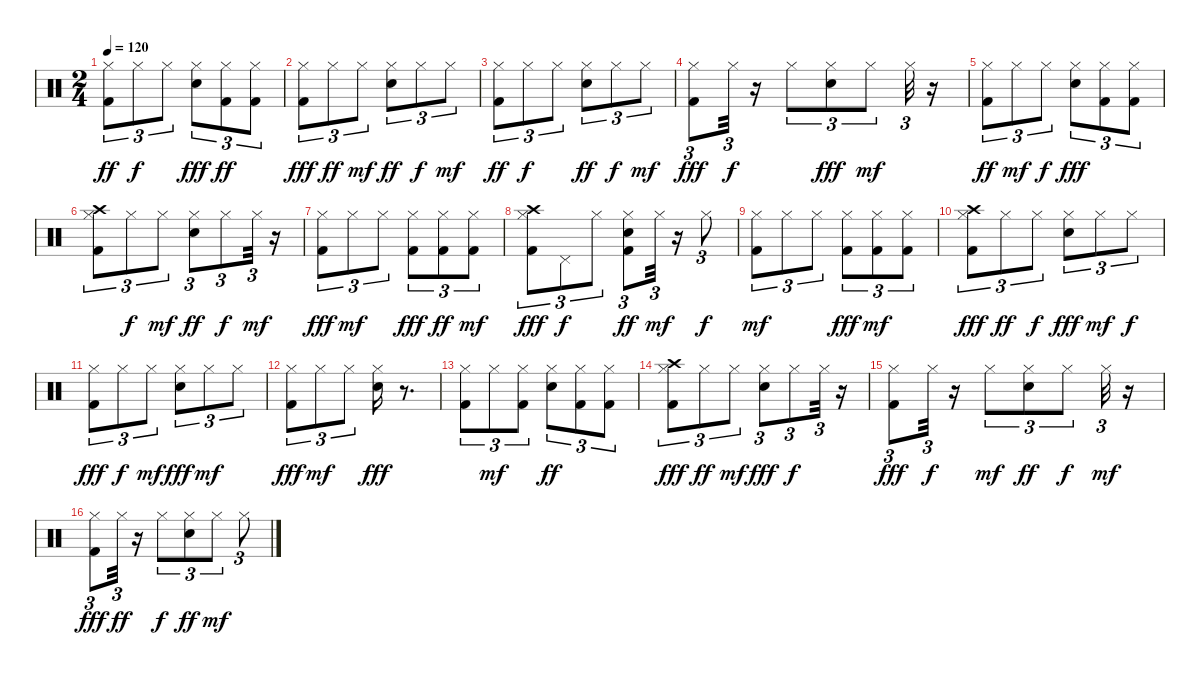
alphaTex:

\track "" {instrument percussion}
\staff {score}
\articulation defaults
\ts (2 4)
\tempo 120
\clef neutral
\ks c
("Kick (hit) 2" "Hi-Hat (closed)").8{tu (3 2) dy ff} "Hi-Hat (closed)".8{tu (3 2) dy f} "Hi-Hat (closed)".8{tu (3 2)} ("Snare (hit) 2" "Hi-Hat (closed)").8{tu (3 2) dy fff} ("Hi-Hat (closed)" "Kick (hit) 2").8{tu (3 2) dy ff} ("Hi-Hat (closed)" "Kick (hit) 2").8{tu (3 2)} |
("Hi-Hat (closed)" "Kick (hit) 2").8{tu (3 2) dy fff} "Hi-Hat (closed)".8{tu (3 2) dy ff} "Hi-Hat (closed)".8{tu (3 2) dy mf} ("Snare (hit) 2" "Hi-Hat (closed)").8{tu (3 2) dy ff} "Hi-Hat (closed)".8{tu (3 2) dy f} "Hi-Hat (closed)".8{tu (3 2) dy mf} |
("Kick (hit) 2" "Hi-Hat (closed)").8{tu (3 2) dy ff} "Hi-Hat (closed)".8{tu (3 2) dy f} "Hi-Hat (closed)".8{tu (3 2)} ("Snare (hit) 2" "Hi-Hat (closed)").8{tu (3 2) dy ff} "Hi-Hat (closed)".8{tu (3 2) dy f} "Hi-Hat (closed)".8{tu (3 2) dy mf} |
("Kick (hit) 2" "Hi-Hat (closed)").8{tu (3 2) dy fff} "Hi-Hat (closed)".32{tu (3 2) dy f} r.16 "Hi-Hat (closed)".8{tu (3 2)} ("Hi-Hat (closed)" "Snare (hit) 2").8{tu (3 2) dy fff} "Hi-Hat (closed)".8{tu (3 2) dy mf} "Hi-Hat (closed)".32{tu (3 2)} r.16 |
("Kick (hit) 2" "Hi-Hat (closed)").8{tu (3 2) dy ff} "Hi-Hat (closed)".8{tu (3 2) dy mf} "Hi-Hat (closed)".8{tu (3 2) dy f} ("Snare (hit) 2" "Hi-Hat (closed)").8{tu (3 2) dy fff} ("Hi-Hat (closed)" "Kick (hit) 2").8{tu (3 2)} ("Hi-Hat (closed)" "Kick (hit) 2").8{tu (3 2)} |
("Hi-Hat (closed)" "Crash high (hit)" "Kick (hit) 2").8{tu (3 2)} "Hi-Hat (closed)".8{tu (3 2) dy f} "Hi-Hat (closed)".8{tu (3 2) dy mf} ("Snare (hit) 2" "Hi-Hat (closed)").8{tu (3 2) dy ff} "Hi-Hat (closed)".8{tu (3 2) dy f} "Hi-Hat (closed)".32{tu (3 2) dy mf} r.16 |
("Kick (hit) 2" "Hi-Hat (closed)").8{tu (3 2) dy fff} "Hi-Hat (closed)".8{tu (3 2) dy mf} "Hi-Hat (closed)".8{tu (3 2)} ("Kick (hit) 2" "Hi-Hat (closed)").8{tu (3 2) dy fff} ("Hi-Hat (closed)" "Kick (hit) 2").8{tu (3 2) dy ff} ("Hi-Hat (closed)" "Kick (hit) 2").8{tu (3 2) dy mf} |
("Crash high (hit)" "Kick (hit) 2" "Hi-Hat (closed)").8{tu (3 2) dy fff} "Pedal Hi-Hat (hit)".8{tu (3 2) dy f} "Hi-Hat (closed)".8{tu (3 2)} ("Snare (hit) 2" "Kick (hit) 2" "Hi-Hat (closed)").8{tu (3 2) dy ff} "Hi-Hat (closed)".32{tu (3 2) dy mf} r.16 "Hi-Hat (closed)".8{tu (3 2) dy f} |
("Kick (hit) 2" "Hi-Hat (closed)").8{tu (3 2) dy mf} "Hi-Hat (closed)".8{tu (3 2)} "Hi-Hat (closed)".8{tu (3 2)} ("Kick (hit) 2" "Hi-Hat (closed)").8{tu (3 2) dy fff} ("Kick (hit) 2" "Hi-Hat (closed)").8{tu (3 2) dy mf} ("Kick (hit) 2" "Hi-Hat (closed)").8{tu (3 2)} |
("Crash high (hit)" "Hi-Hat (closed)" "Kick (hit) 2").8{tu (3 2) dy fff} "Hi-Hat (closed)".8{tu (3 2) dy ff} "Hi-Hat (closed)".8{tu (3 2) dy f} ("Snare (hit) 2" "Hi-Hat (closed)").8{tu (3 2) dy fff} "Hi-Hat (closed)".8{tu (3 2) dy mf} "Hi-Hat (closed)".8{tu (3 2) dy f} |
("Kick (hit) 2" "Hi-Hat (closed)").8{tu (3 2) dy fff} "Hi-Hat (closed)".8{tu (3 2) dy f} "Hi-Hat (closed)".8{tu (3 2) dy mf} ("Snare (hit) 2" "Hi-Hat (closed)").8{tu (3 2) dy fff} "Hi-Hat (closed)".8{tu (3 2) dy mf} "Hi-Hat (closed)".8{tu (3 2)} |
("Kick (hit) 2" "Hi-Hat (closed)").8{tu (3 2) dy fff} "Hi-Hat (closed)".8{tu (3 2) dy mf} "Hi-Hat (closed)".8{tu (3 2)} ("Snare (hit) 2" "Hi-Hat (closed)").16{dy fff} r.8{d} |
("Hi-Hat (closed)" "Kick (hit) 2").8{tu (3 2)} "Hi-Hat (closed)".8{tu (3 2) dy mf} ("Kick (hit) 2" "Hi-Hat (closed)").8{tu (3 2)} ("Snare (hit) 2" "Hi-Hat (closed)").8{tu (3 2) dy ff} ("Kick (hit) 2" "Hi-Hat (closed)").8{tu (3 2)} ("Kick (hit) 2" "Hi-Hat (closed)").8{tu (3 2)} |
("Hi-Hat (closed)" "Crash high (hit)" "Kick (hit) 2").8{tu (3 2) dy fff} "Hi-Hat (closed)".8{tu (3 2) dy ff} "Hi-Hat (closed)".8{tu (3 2) dy mf} ("Hi-Hat (closed)" "Snare (hit) 2").8{tu (3 2) dy fff} "Hi-Hat (closed)".8{tu (3 2) dy f} "Hi-Hat (closed)".32{tu (3 2)} r.16 |
("Kick (hit) 2" "Hi-Hat (closed)").8{tu (3 2) dy fff} "Hi-Hat (closed)".32{tu (3 2) dy f} r.16 "Hi-Hat (closed)".8{tu (3 2) dy mf} ("Snare (hit) 2" "Hi-Hat (closed)").8{tu (3 2) dy ff} "Hi-Hat (closed)".8{tu (3 2) dy f} "Hi-Hat (closed)".32{tu (3 2) dy mf} r.16 |
("Kick (hit) 2" "Hi-Hat (closed)").8{tu (3 2) dy fff} "Hi-Hat (closed)".32{tu (3 2) dy ff} r.16 "Hi-Hat (closed)".8{tu (3 2) dy f} ("Snare (hit) 2" "Hi-Hat (closed)").8{tu (3 2) dy ff} "Hi-Hat (closed)".8{tu (3 2) dy mf} "Hi-Hat (closed)".8{tu (3 2)}
